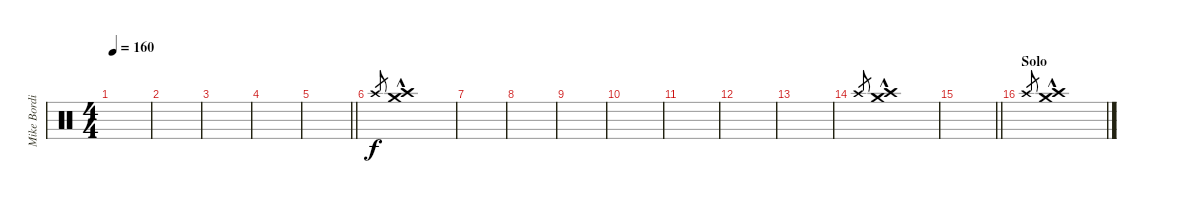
\track ("Mike Bordin - Percussion Crash" "Mike Bordi") {instrument percussion}
\staff {score}
\articulation defaults
\ts (4 4)
\tempo 160
\clef neutral
\ks c
|
|
|
|
\barLineRight lightlight
|
\section ("" "")
"Crash high (hit)".8{gr} ("Crash high (hit)"{hac} "Crash medium (hit)").1{volume 16} |
|
|
|
|
|
|
|
"Crash high (hit)".8{gr} ("Crash high (hit)"{hac} "Crash medium (hit)").1{volume 16} |
\barLineRight lightlight
|
\section ("" "Solo")
"Crash high (hit)".8{gr} ("Crash high (hit)"{hac} "Crash medium (hit)").1{volume 16}
